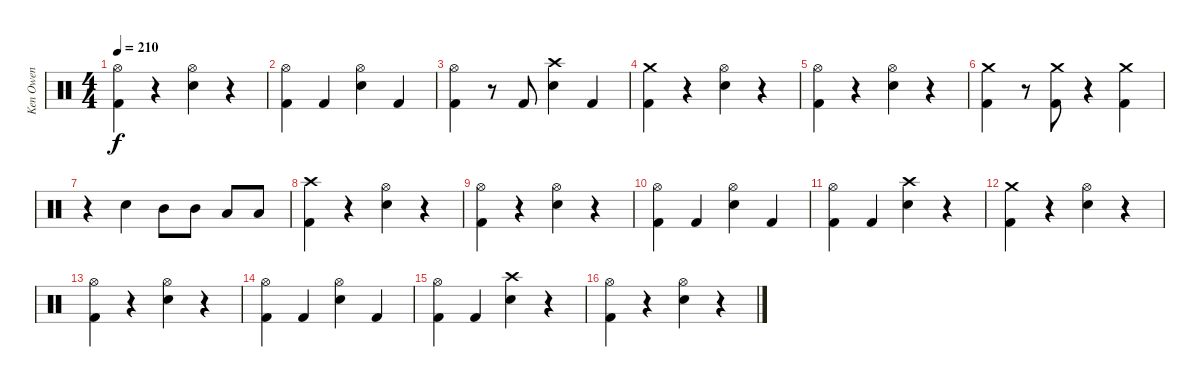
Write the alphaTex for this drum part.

\track ("Ken Owen" "Ken Owen") {instrument percussion}
\staff {score}
\articulation defaults
\ts (4 4)
\tempo 210
\clef neutral
\ks c
("Hi-Hat (open)" "Kick (hit) 2").4{dy f} r.4 ("Hi-Hat (open)" "Snare (hit) 2").4 r.4 |
("Hi-Hat (open)" "Kick (hit) 2").4 "Kick (hit) 2".4 ("Hi-Hat (open)" "Snare (hit) 2").4 "Kick (hit) 2".4 |
("Hi-Hat (open)" "Kick (hit) 2").4 r.8 "Kick (hit) 2".8 ("Crash high (hit)" "Snare (hit) 2").4 "Kick (hit) 2".4 |
("Crash medium (hit)" "Kick (hit) 2").4 r.4 ("Hi-Hat (open)" "Snare (hit) 2").4 r.4 |
("Hi-Hat (open)" "Kick (hit) 2").4 r.4 ("Hi-Hat (open)" "Snare (hit) 2").4 r.4 |
("Crash medium (hit)" "Kick (hit) 2").4 r.8 ("Crash medium (hit)" "Kick (hit) 2").8 r.4 ("Crash medium (hit)" "Kick (hit) 2").4 |
r.4 "Snare (hit) 2".4 "Mid Tom (hit)".8 "Mid Tom (hit)".8 "Low Tom (hit)".8 "Low Tom (hit)".8 |
("Crash high (hit)" "Kick (hit) 2").4 r.4 ("Hi-Hat (open)" "Snare (hit) 2").4 r.4 |
("Hi-Hat (open)" "Kick (hit) 2").4 r.4 ("Hi-Hat (open)" "Snare (hit) 2").4 r.4 |
("Hi-Hat (open)" "Kick (hit) 2").4 "Kick (hit) 2".4 ("Hi-Hat (open)" "Snare (hit) 2").4 "Kick (hit) 2".4 |
("Hi-Hat (open)" "Kick (hit) 2").4 "Kick (hit) 2".4 ("Crash high (hit)" "Snare (hit) 2").4 r.4 |
("Crash medium (hit)" "Kick (hit) 2").4 r.4 ("Hi-Hat (open)" "Snare (hit) 2").4 r.4 |
("Hi-Hat (open)" "Kick (hit) 2").4 r.4 ("Hi-Hat (open)" "Snare (hit) 2").4 r.4 |
("Hi-Hat (open)" "Kick (hit) 2").4 "Kick (hit) 2".4 ("Hi-Hat (open)" "Snare (hit) 2").4 "Kick (hit) 2".4 |
("Hi-Hat (open)" "Kick (hit) 2").4 "Kick (hit) 2".4 ("Crash high (hit)" "Snare (hit) 2").4 r.4 |
("Hi-Hat (open)" "Kick (hit) 2").4 r.4 ("Hi-Hat (open)" "Snare (hit) 2").4 r.4
